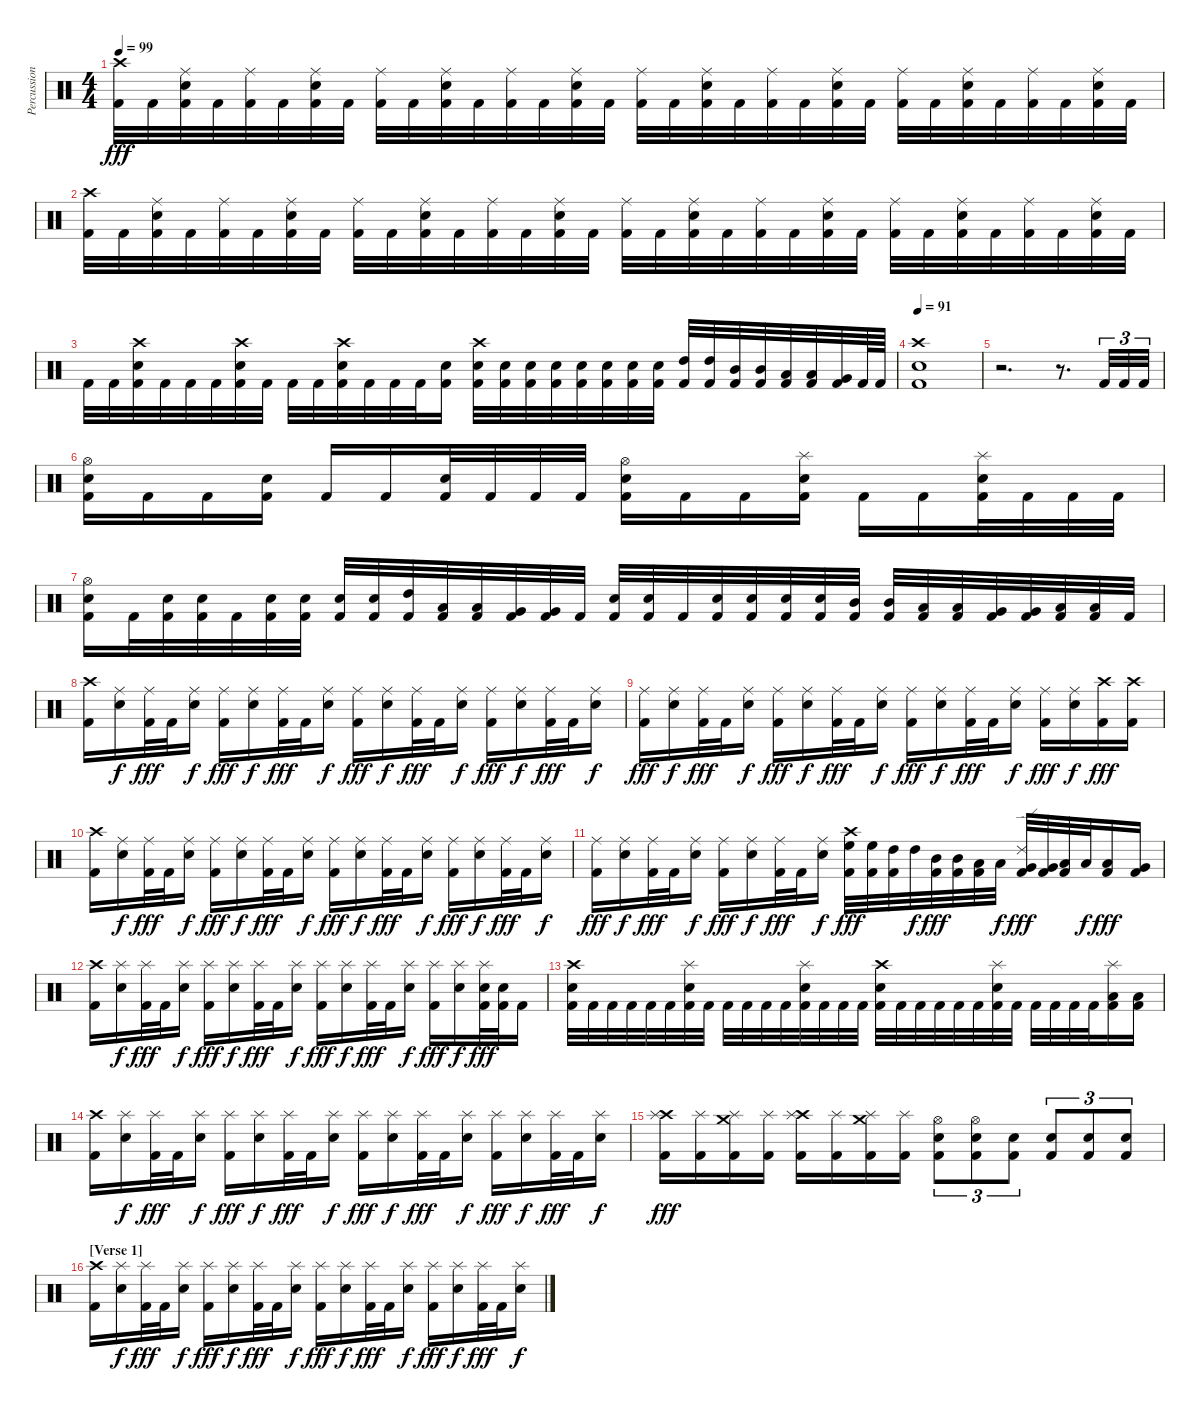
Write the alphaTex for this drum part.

\track ("Percussion" "Percussion") {instrument percussion}
\staff {score}
\articulation defaults
\ts (4 4)
\tempo 99
\clef neutral
\ks c
("Crash high (hit)" "Kick (hit) 2").32{dy fff} "Kick (hit) 2".32 ("Ride (middle)" "Snare (hit) 2" "Kick (hit) 2").32 "Kick (hit) 2".32 ("Ride (middle)" "Kick (hit) 2").32 "Kick (hit) 2".32 ("Ride (middle)" "Snare (hit) 2" "Kick (hit) 2").32 "Kick (hit) 2".32 ("Ride (middle)" "Kick (hit) 2").32 "Kick (hit) 2".32 ("Ride (middle)" "Snare (hit) 2" "Kick (hit) 2").32 "Kick (hit) 2".32 ("Ride (middle)" "Kick (hit) 2").32 "Kick (hit) 2".32 ("Ride (middle)" "Snare (hit) 2" "Kick (hit) 2").32 "Kick (hit) 2".32 ("Ride (middle)" "Kick (hit) 2").32 "Kick (hit) 2".32 ("Ride (middle)" "Snare (hit) 2" "Kick (hit) 2").32 "Kick (hit) 2".32 ("Ride (middle)" "Kick (hit) 2").32 "Kick (hit) 2".32 ("Ride (middle)" "Snare (hit) 2" "Kick (hit) 2").32 "Kick (hit) 2".32 ("Ride (middle)" "Kick (hit) 2").32 "Kick (hit) 2".32 ("Ride (middle)" "Snare (hit) 2" "Kick (hit) 2").32 "Kick (hit) 2".32 ("Ride (middle)" "Kick (hit) 2").32 "Kick (hit) 2".32 ("Ride (middle)" "Snare (hit) 2" "Kick (hit) 2").32 "Kick (hit) 2".32 |
("Crash high (hit)" "Kick (hit) 2").32 "Kick (hit) 2".32 ("Ride (middle)" "Snare (hit) 2" "Kick (hit) 2").32 "Kick (hit) 2".32 ("Ride (middle)" "Kick (hit) 2").32 "Kick (hit) 2".32 ("Ride (middle)" "Snare (hit) 2" "Kick (hit) 2").32 "Kick (hit) 2".32 ("Ride (middle)" "Kick (hit) 2").32 "Kick (hit) 2".32 ("Ride (middle)" "Snare (hit) 2" "Kick (hit) 2").32 "Kick (hit) 2".32 ("Ride (middle)" "Kick (hit) 2").32 "Kick (hit) 2".32 ("Ride (middle)" "Snare (hit) 2" "Kick (hit) 2").32 "Kick (hit) 2".32 ("Ride (middle)" "Kick (hit) 2").32 "Kick (hit) 2".32 ("Ride (middle)" "Snare (hit) 2" "Kick (hit) 2").32 "Kick (hit) 2".32 ("Ride (middle)" "Kick (hit) 2").32 "Kick (hit) 2".32 ("Ride (middle)" "Snare (hit) 2" "Kick (hit) 2").32 "Kick (hit) 2".32 ("Ride (middle)" "Kick (hit) 2").32 "Kick (hit) 2".32 ("Ride (middle)" "Snare (hit) 2" "Kick (hit) 2").32 "Kick (hit) 2".32 ("Ride (middle)" "Kick (hit) 2").32 "Kick (hit) 2".32 ("Ride (middle)" "Snare (hit) 2" "Kick (hit) 2").32 "Kick (hit) 2".32 |
"Kick (hit) 2".32 "Kick (hit) 2".32 ("Crash high (hit)" "Snare (hit) 2" "Kick (hit) 2").32 "Kick (hit) 2".32 "Kick (hit) 2".32 "Kick (hit) 2".32 ("Crash high (hit)" "Snare (hit) 2" "Kick (hit) 2").32 "Kick (hit) 2".32 "Kick (hit) 2".32 "Kick (hit) 2".32 ("Crash high (hit)" "Snare (hit) 2" "Kick (hit) 2").32 "Kick (hit) 2".32 "Kick (hit) 2".32 "Kick (hit) 2".32 ("Snare (hit) 2" "Kick (hit) 2").16 ("Crash high (hit)" "Snare (hit) 2" "Kick (hit) 2").32 ("Snare (hit) 2" "Kick (hit) 2").32 ("Snare (hit) 2" "Kick (hit) 2").32 ("Snare (hit) 2" "Kick (hit) 2").32 ("Snare (hit) 2" "Kick (hit) 2").32 ("Snare (hit) 2" "Kick (hit) 2").32 ("Snare (hit) 2" "Kick (hit) 2").32 ("Snare (hit) 2" "Kick (hit) 2").32 ("High Tom (hit)" "Kick (hit) 2").32 ("High Tom (hit)" "Kick (hit) 2").32 ("Mid Tom (hit)" "Kick (hit) 2").32 ("Mid Tom (hit)" "Kick (hit) 2").32 ("Low Tom (hit)" "Kick (hit) 2").32 ("Low Tom (hit)" "Kick (hit) 2").32 ("Very Low Tom (hit)" "Kick (hit) 2").32 "Kick (hit) 2".64 "Kick (hit) 2".64 |
\section ("" "")
\tempo 91
("Crash high (hit)" "Snare (hit) 2" "Kick (hit) 2").1 |
r.2{d} r.8{d} "Kick (hit) 2".32{tu (3 2)} "Kick (hit) 2".32{tu (3 2)} "Kick (hit) 2".32{tu (3 2)} |
("Hi-Hat (open)" "Snare (hit) 2" "Kick (hit) 2").16 "Kick (hit) 2".16 "Kick (hit) 2".16 ("Snare (hit) 2" "Kick (hit) 2").16 "Kick (hit) 2".16 "Kick (hit) 2".16 ("Snare (hit) 2" "Kick (hit) 2").32 "Kick (hit) 2".32 "Kick (hit) 2".32 "Kick (hit) 2".32 ("Hi-Hat (open)" "Snare (hit) 2" "Kick (hit) 2").16 "Kick (hit) 2".16 "Kick (hit) 2".16 ("Splash (hit)" "Snare (hit) 2" "Kick (hit) 2").16 "Kick (hit) 2".16 "Kick (hit) 2".16 ("Splash (hit)" "Snare (hit) 2" "Kick (hit) 2").32 "Kick (hit) 2".32 "Kick (hit) 2".32 "Kick (hit) 2".32 |
("Hi-Hat (open)" "Snare (hit) 2" "Kick (hit) 2").16 "Kick (hit) 2".32 ("Snare (hit) 2" "Kick (hit) 2").32 ("Snare (hit) 2" "Kick (hit) 2").32 "Kick (hit) 2".32 ("Snare (hit) 2" "Kick (hit) 2").32 ("Snare (hit) 2" "Kick (hit) 2").32 ("Snare (hit) 2" "Kick (hit) 2").32 ("Snare (hit) 2" "Kick (hit) 2").32 ("High Tom (hit)" "Kick (hit) 2").32 ("Low Tom (hit)" "Kick (hit) 2").32 ("Low Tom (hit)" "Kick (hit) 2").32 ("Very Low Tom (hit)" "Kick (hit) 2").32 ("Very Low Tom (hit)" "Kick (hit) 2").32 "Kick (hit) 2".32 ("Snare (hit) 2" "Kick (hit) 2").32 ("Snare (hit) 2" "Kick (hit) 2").32 "Kick (hit) 2".32 ("Snare (hit) 2" "Kick (hit) 2").32 ("Snare (hit) 2" "Kick (hit) 2").32 ("Snare (hit) 2" "Kick (hit) 2").32 ("Snare (hit) 2" "Kick (hit) 2").32 ("Mid Tom (hit)" "Kick (hit) 2").32 ("Mid Tom (hit)" "Kick (hit) 2").32 ("Low Tom (hit)" "Kick (hit) 2").32 ("Low Tom (hit)" "Kick (hit) 2").32 ("Very Low Tom (hit)" "Kick (hit) 2").32 ("Very Low Tom (hit)" "Kick (hit) 2").32 ("Low Floor Tom (hit)" "Kick (hit) 2").32 ("Low Floor Tom (hit)" "Kick (hit) 2").32 "Kick (hit) 2".32 |
("Crash high (hit)" "Kick (hit) 2").16 ("Ride (middle)" "Snare (hit) 2").16{dy f} ("Ride (middle)" "Kick (hit) 2").32{dy fff} "Kick (hit) 2".32 ("Ride (middle)" "Snare (hit) 2").16{dy f} ("Ride (middle)" "Kick (hit) 2").16{dy fff} ("Ride (middle)" "Snare (hit) 2").16{dy f} ("Ride (middle)" "Kick (hit) 2").32{dy fff} "Kick (hit) 2".32 ("Ride (middle)" "Snare (hit) 2").16{dy f} ("Ride (middle)" "Kick (hit) 2").16{dy fff} ("Ride (middle)" "Snare (hit) 2").16{dy f} ("Ride (middle)" "Kick (hit) 2").32{dy fff} "Kick (hit) 2".32 ("Ride (middle)" "Snare (hit) 2").16{dy f} ("Ride (middle)" "Kick (hit) 2").16{dy fff} ("Ride (middle)" "Snare (hit) 2").16{dy f} ("Ride (middle)" "Kick (hit) 2").32{dy fff} "Kick (hit) 2".32 ("Ride (middle)" "Snare (hit) 2").16{dy f} |
("Ride (middle)" "Kick (hit) 2").16{dy fff} ("Ride (middle)" "Snare (hit) 2").16{dy f} ("Ride (middle)" "Kick (hit) 2").32{dy fff} "Kick (hit) 2".32 ("Ride (middle)" "Snare (hit) 2").16{dy f} ("Ride (middle)" "Kick (hit) 2").16{dy fff} ("Ride (middle)" "Snare (hit) 2").16{dy f} ("Ride (middle)" "Kick (hit) 2").32{dy fff} "Kick (hit) 2".32 ("Ride (middle)" "Snare (hit) 2").16{dy f} ("Ride (middle)" "Kick (hit) 2").16{dy fff} ("Ride (middle)" "Snare (hit) 2").16{dy f} ("Ride (middle)" "Kick (hit) 2").32{dy fff} "Kick (hit) 2".32 ("Ride (middle)" "Snare (hit) 2").16{dy f} ("Ride (middle)" "Kick (hit) 2").16{dy fff} ("Ride (middle)" "Snare (hit) 2").16{dy f} ("Crash high (hit)" "Kick (hit) 2").16{dy fff} ("Crash high (hit)" "Kick (hit) 2").16 |
("Crash high (hit)" "Kick (hit) 2").16 ("Ride (middle)" "Snare (hit) 2").16{dy f} ("Ride (middle)" "Kick (hit) 2").32{dy fff} "Kick (hit) 2".32 ("Ride (middle)" "Snare (hit) 2").16{dy f} ("Ride (middle)" "Kick (hit) 2").16{dy fff} ("Ride (middle)" "Snare (hit) 2").16{dy f} ("Ride (middle)" "Kick (hit) 2").32{dy fff} "Kick (hit) 2".32 ("Ride (middle)" "Snare (hit) 2").16{dy f} ("Ride (middle)" "Kick (hit) 2").16{dy fff} ("Ride (middle)" "Snare (hit) 2").16{dy f} ("Ride (middle)" "Kick (hit) 2").32{dy fff} "Kick (hit) 2".32 ("Ride (middle)" "Snare (hit) 2").16{dy f} ("Ride (middle)" "Kick (hit) 2").16{dy fff} ("Ride (middle)" "Snare (hit) 2").16{dy f} ("Ride (middle)" "Kick (hit) 2").32{dy fff} "Kick (hit) 2".32 ("Ride (middle)" "Snare (hit) 2").16{dy f} |
("Ride (middle)" "Kick (hit) 2").16{dy fff} ("Ride (middle)" "Snare (hit) 2").16{dy f} ("Ride (middle)" "Kick (hit) 2").32{dy fff} "Kick (hit) 2".32 ("Ride (middle)" "Snare (hit) 2").16{dy f} ("Ride (middle)" "Kick (hit) 2").16{dy fff} ("Ride (middle)" "Snare (hit) 2").16{dy f} ("Ride (middle)" "Kick (hit) 2").32{dy fff} "Kick (hit) 2".32 ("Ride (middle)" "Snare (hit) 2").16{dy f} ("Crash high (hit)" "High Floor Tom (hit)" "Kick (hit) 2").32{dy fff} ("High Floor Tom (hit)" "Kick (hit) 2").32 ("High Tom (hit)" "Kick (hit) 2").32 "High Tom (hit)".32{dy f} ("Mid Tom (hit)" "Kick (hit) 2").32{dy fff} ("Mid Tom (hit)" "Kick (hit) 2").32 ("Low Tom (hit)" "Kick (hit) 2").32 "Low Tom (hit)".32{dy f} ("Ride (edge) 2" "Very Low Tom (hit)" "Kick (hit) 2").32{dy fff} ("Very Low Tom (hit)" "Kick (hit) 2").32 ("Low Floor Tom (hit)" "Kick (hit) 2").32 "Low Floor Tom (hit)".32{dy f} ("Low Tom (hit)" "Kick (hit) 2").16{dy fff} ("Very Low Tom (hit)" "Kick (hit) 2").16 |
\section ("" "")
("Crash high (hit)" "Kick (hit) 2").16 ("Splash (hit)" "Snare (hit) 2").16{dy f} ("Splash (hit)" "Kick (hit) 2").32{dy fff} "Kick (hit) 2".32 ("Splash (hit)" "Snare (hit) 2").16{dy f} ("Splash (hit)" "Kick (hit) 2").16{dy fff} ("Splash (hit)" "Snare (hit) 2").16{dy f} ("Splash (hit)" "Kick (hit) 2").32{dy fff} "Kick (hit) 2".32 ("Splash (hit)" "Snare (hit) 2").16{dy f} ("Splash (hit)" "Kick (hit) 2").16{dy fff} ("Splash (hit)" "Snare (hit) 2").16{dy f} ("Splash (hit)" "Kick (hit) 2").32{dy fff} "Kick (hit) 2".32 ("Splash (hit)" "Snare (hit) 2").16{dy f} ("Splash (hit)" "Kick (hit) 2").16{dy fff} ("Splash (hit)" "Snare (hit) 2").16{dy f} ("Splash (hit)" "Snare (hit) 2" "Kick (hit) 2").32{dy fff} ("Snare (hit) 2" "Kick (hit) 2").32 "Kick (hit) 2".16 |
("Crash high (hit)" "Snare (hit) 2" "Kick (hit) 2").32 "Kick (hit) 2".32 "Kick (hit) 2".32 "Kick (hit) 2".32 "Kick (hit) 2".32 "Kick (hit) 2".32 ("Splash (hit)" "Snare (hit) 2" "Kick (hit) 2").32 "Kick (hit) 2".32 "Kick (hit) 2".32 "Kick (hit) 2".32 "Kick (hit) 2".32 "Kick (hit) 2".32 ("Splash (hit)" "Snare (hit) 2" "Kick (hit) 2").32 "Kick (hit) 2".32 "Kick (hit) 2".32 "Kick (hit) 2".32 ("Crash high (hit)" "Snare (hit) 2" "Kick (hit) 2").32 "Kick (hit) 2".32 "Kick (hit) 2".32 "Kick (hit) 2".32 "Kick (hit) 2".32 "Kick (hit) 2".32 ("Splash (hit)" "Snare (hit) 2" "Kick (hit) 2").32 "Kick (hit) 2".32 "Kick (hit) 2".32 "Kick (hit) 2".32 "Kick (hit) 2".32 "Kick (hit) 2".32 ("Splash (hit)" "Low Tom (hit)" "Kick (hit) 2").16 ("Low Tom (hit)" "Kick (hit) 2").16 |
("Crash high (hit)" "Kick (hit) 2").16 ("Splash (hit)" "Snare (hit) 2").16{dy f} ("Splash (hit)" "Kick (hit) 2").32{dy fff} "Kick (hit) 2".32 ("Splash (hit)" "Snare (hit) 2").16{dy f} ("Splash (hit)" "Kick (hit) 2").16{dy fff} ("Splash (hit)" "Snare (hit) 2").16{dy f} ("Splash (hit)" "Kick (hit) 2").32{dy fff} "Kick (hit) 2".32 ("Splash (hit)" "Snare (hit) 2").16{dy f} ("Splash (hit)" "Kick (hit) 2").16{dy fff} ("Splash (hit)" "Snare (hit) 2").16{dy f} ("Splash (hit)" "Kick (hit) 2").32{dy fff} "Kick (hit) 2".32 ("Splash (hit)" "Snare (hit) 2").16{dy f} ("Splash (hit)" "Kick (hit) 2").16{dy fff} ("Splash (hit)" "Snare (hit) 2").16{dy f} ("Splash (hit)" "Kick (hit) 2").32{dy fff} "Kick (hit) 2".32 ("Splash (hit)" "Snare (hit) 2").16{dy f} |
("Crash high (hit)" "Splash (hit)" "Kick (hit) 2").16{dy fff} ("Splash (hit)" "Kick (hit) 2").16 ("Crash medium (hit)" "Splash (hit)" "Kick (hit) 2").16 ("Splash (hit)" "Kick (hit) 2").16 ("Crash high (hit)" "Splash (hit)" "Kick (hit) 2").16 ("Splash (hit)" "Kick (hit) 2").16 ("Crash medium (hit)" "Splash (hit)" "Kick (hit) 2").16 ("Splash (hit)" "Kick (hit) 2").16 ("Hi-Hat (open)" "Snare (hit) 2" "Kick (hit) 2").8{tu (3 2)} ("Hi-Hat (open)" "Snare (hit) 2" "Kick (hit) 2").8{tu (3 2)} ("Snare (hit) 2" "Kick (hit) 2").8{tu (3 2)} ("Snare (hit) 2" "Kick (hit) 2").8{tu (3 2)} ("Snare (hit) 2" "Kick (hit) 2").8{tu (3 2)} ("Snare (hit) 2" "Kick (hit) 2").8{tu (3 2)} |
\section ("" "[Verse 1]")
("Crash high (hit)" "Kick (hit) 2").16 ("Splash (hit)" "Snare (hit) 2").16{dy f} ("Splash (hit)" "Kick (hit) 2").32{dy fff} "Kick (hit) 2".32 ("Splash (hit)" "Snare (hit) 2").16{dy f} ("Splash (hit)" "Kick (hit) 2").16{dy fff} ("Splash (hit)" "Snare (hit) 2").16{dy f} ("Splash (hit)" "Kick (hit) 2").32{dy fff} "Kick (hit) 2".32 ("Splash (hit)" "Snare (hit) 2").16{dy f} ("Splash (hit)" "Kick (hit) 2").16{dy fff} ("Splash (hit)" "Snare (hit) 2").16{dy f} ("Splash (hit)" "Kick (hit) 2").32{dy fff} "Kick (hit) 2".32 ("Splash (hit)" "Snare (hit) 2").16{dy f} ("Splash (hit)" "Kick (hit) 2").16{dy fff} ("Splash (hit)" "Snare (hit) 2").16{dy f} ("Splash (hit)" "Kick (hit) 2").32{dy fff} "Kick (hit) 2".32 ("Splash (hit)" "Snare (hit) 2").16{dy f}
